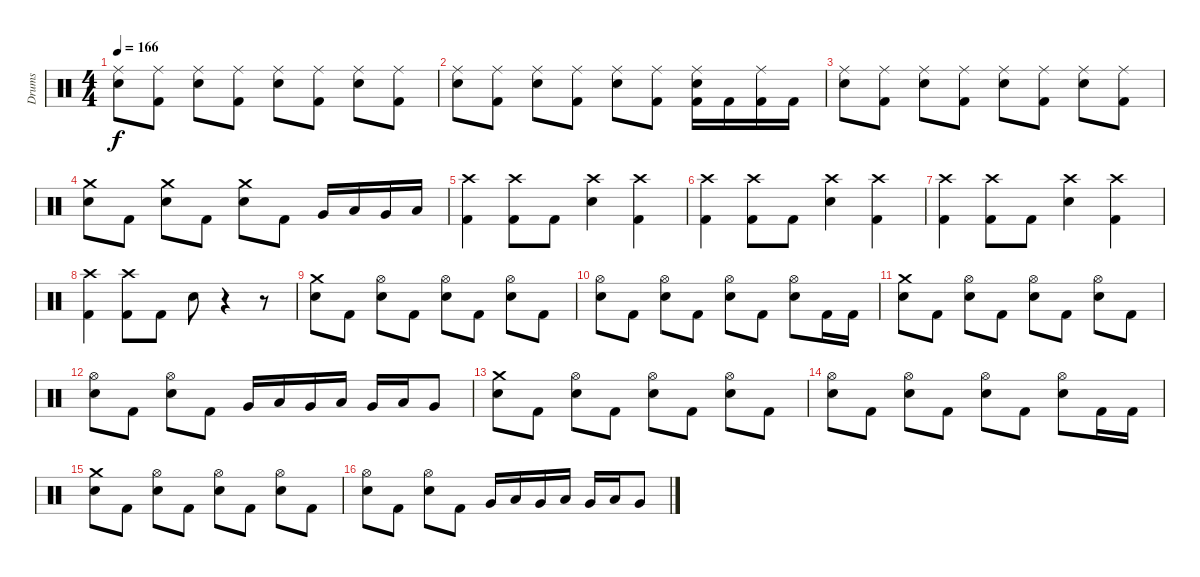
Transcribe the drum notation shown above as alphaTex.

\track ("Drums" "Drums") {instrument percussion}
\staff {score}
\articulation defaults
\ts (4 4)
\tempo 166
\clef neutral
\ks c
("Ride (middle)" "Snare (hit) 2").8{dy f} ("Ride (middle)" "Kick (hit) 2").8 ("Ride (middle)" "Snare (hit) 2").8 ("Ride (middle)" "Kick (hit) 2").8 ("Ride (middle)" "Snare (hit) 2").8 ("Ride (middle)" "Kick (hit) 2").8 ("Ride (middle)" "Snare (hit) 2").8 ("Ride (middle)" "Kick (hit) 2").8 |
("Ride (middle)" "Snare (hit) 2").8 ("Ride (middle)" "Kick (hit) 2").8 ("Ride (middle)" "Snare (hit) 2").8 ("Ride (middle)" "Kick (hit) 2").8 ("Ride (middle)" "Snare (hit) 2").8 ("Ride (middle)" "Kick (hit) 2").8 ("Ride (middle)" "Snare (hit) 2" "Kick (hit) 2").16 "Kick (hit) 2".16 ("Ride (middle)" "Kick (hit) 2").16 "Kick (hit) 2".16 |
("Ride (middle)" "Snare (hit) 2").8 ("Ride (middle)" "Kick (hit) 2").8 ("Ride (middle)" "Snare (hit) 2").8 ("Ride (middle)" "Kick (hit) 2").8 ("Ride (middle)" "Snare (hit) 2").8 ("Ride (middle)" "Kick (hit) 2").8 ("Ride (middle)" "Snare (hit) 2").8 ("Ride (middle)" "Kick (hit) 2").8 |
("Crash medium (hit)" "Snare (hit) 2").8 "Kick (hit) 2".8 ("Crash medium (hit)" "Snare (hit) 2").8 "Kick (hit) 2".8 ("Crash medium (hit)" "Snare (hit) 2").8 "Kick (hit) 2".8 "Very Low Tom (hit)".16 "Low Tom (hit)".16 "Very Low Tom (hit)".16 "Low Tom (hit)".16 |
("Crash high (hit)" "Kick (hit) 2").4 ("Crash high (hit)" "Kick (hit) 2").8 "Kick (hit) 2".8 ("Crash high (hit)" "Snare (hit) 2").4 ("Crash high (hit)" "Kick (hit) 2").4 |
("Crash high (hit)" "Kick (hit) 2").4 ("Crash high (hit)" "Kick (hit) 2").8 "Kick (hit) 2".8 ("Crash high (hit)" "Snare (hit) 2").4 ("Crash high (hit)" "Kick (hit) 2").4 |
("Crash high (hit)" "Kick (hit) 2").4 ("Crash high (hit)" "Kick (hit) 2").8 "Kick (hit) 2".8 ("Crash high (hit)" "Snare (hit) 2").4 ("Crash high (hit)" "Kick (hit) 2").4 |
("Crash high (hit)" "Kick (hit) 2").4 ("Crash high (hit)" "Kick (hit) 2").8 "Kick (hit) 2".8 "Snare (hit) 2".8 r.4 r.8 |
("Crash medium (hit)" "Snare (hit) 2").8 "Kick (hit) 2".8 ("Hi-Hat (open)" "Snare (hit) 2").8 "Kick (hit) 2".8 ("Hi-Hat (open)" "Snare (hit) 2").8 "Kick (hit) 2".8 ("Hi-Hat (open)" "Snare (hit) 2").8 "Kick (hit) 2".8 |
("Hi-Hat (open)" "Snare (hit) 2").8 "Kick (hit) 2".8 ("Hi-Hat (open)" "Snare (hit) 2").8 "Kick (hit) 2".8 ("Hi-Hat (open)" "Snare (hit) 2").8 "Kick (hit) 2".8 ("Hi-Hat (open)" "Snare (hit) 2").8 "Kick (hit) 2".16 "Kick (hit) 2".16 |
("Crash medium (hit)" "Snare (hit) 2").8 "Kick (hit) 2".8 ("Hi-Hat (open)" "Snare (hit) 2").8 "Kick (hit) 2".8 ("Hi-Hat (open)" "Snare (hit) 2").8 "Kick (hit) 2".8 ("Hi-Hat (open)" "Snare (hit) 2").8 "Kick (hit) 2".8 |
("Hi-Hat (open)" "Snare (hit) 2").8 "Kick (hit) 2".8 ("Hi-Hat (open)" "Snare (hit) 2").8 "Kick (hit) 2".8 "Very Low Tom (hit)".16 "Low Tom (hit)".16 "Very Low Tom (hit)".16 "Low Tom (hit)".16 "Very Low Tom (hit)".16 "Low Tom (hit)".16 "Very Low Tom (hit)".8 |
("Crash medium (hit)" "Snare (hit) 2").8 "Kick (hit) 2".8 ("Hi-Hat (open)" "Snare (hit) 2").8 "Kick (hit) 2".8 ("Hi-Hat (open)" "Snare (hit) 2").8 "Kick (hit) 2".8 ("Hi-Hat (open)" "Snare (hit) 2").8 "Kick (hit) 2".8 |
("Hi-Hat (open)" "Snare (hit) 2").8 "Kick (hit) 2".8 ("Hi-Hat (open)" "Snare (hit) 2").8 "Kick (hit) 2".8 ("Hi-Hat (open)" "Snare (hit) 2").8 "Kick (hit) 2".8 ("Hi-Hat (open)" "Snare (hit) 2").8 "Kick (hit) 2".16 "Kick (hit) 2".16 |
("Crash medium (hit)" "Snare (hit) 2").8 "Kick (hit) 2".8 ("Hi-Hat (open)" "Snare (hit) 2").8 "Kick (hit) 2".8 ("Hi-Hat (open)" "Snare (hit) 2").8 "Kick (hit) 2".8 ("Hi-Hat (open)" "Snare (hit) 2").8 "Kick (hit) 2".8 |
("Hi-Hat (open)" "Snare (hit) 2").8 "Kick (hit) 2".8 ("Hi-Hat (open)" "Snare (hit) 2").8 "Kick (hit) 2".8 "Very Low Tom (hit)".16 "Low Tom (hit)".16 "Very Low Tom (hit)".16 "Low Tom (hit)".16 "Very Low Tom (hit)".16 "Low Tom (hit)".16 "Very Low Tom (hit)".8
